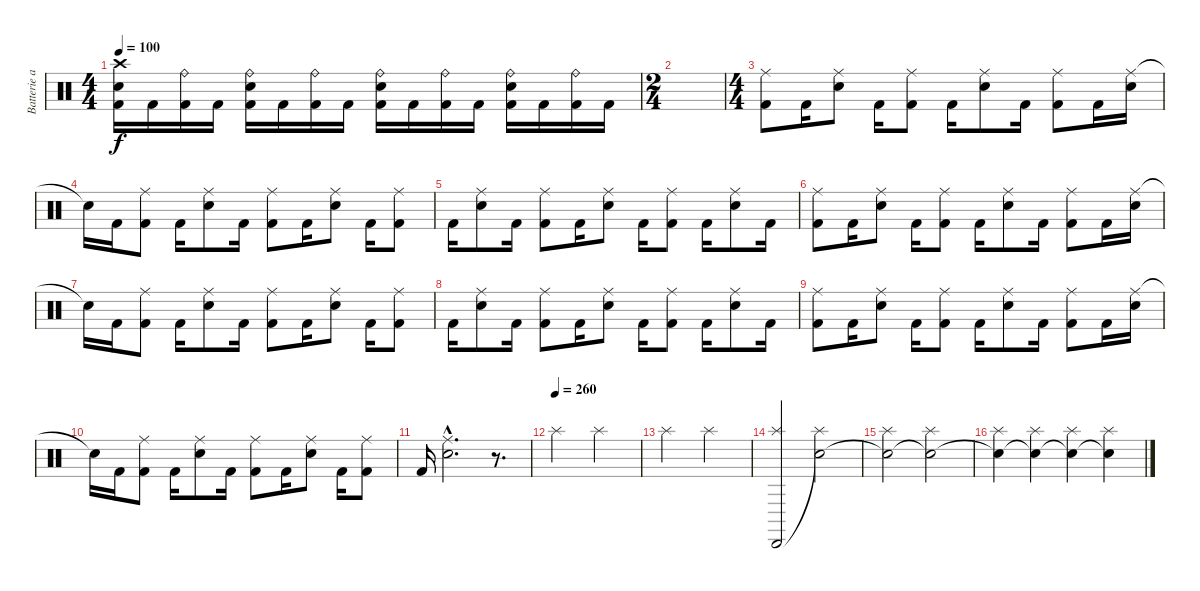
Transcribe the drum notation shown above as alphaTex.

\track ("Batterie and Effects" "Batterie a") {instrument percussion}
\staff {score}
\articulation defaults
\ts (4 4)
\tempo 100
\clef neutral
\ks c
("Crash high (hit)" "Electric Snare (hit)" "Kick (hit) 2").16{dy f} "Kick (hit) 2".16 ("Ride (bell)" "Kick (hit) 2").16 "Kick (hit) 2".16 ("Ride (bell)" "Electric Snare (hit)" "Kick (hit) 2").16 "Kick (hit) 2".16 ("Ride (bell)" "Kick (hit) 2").16 "Kick (hit) 2".16 ("Ride (bell)" "Electric Snare (hit)" "Kick (hit) 2").16 "Kick (hit) 2".16 ("Ride (bell)" "Kick (hit) 2").16 "Kick (hit) 2".16 ("Ride (bell)" "Electric Snare (hit)" "Kick (hit) 2").16 "Kick (hit) 2".16 ("Ride (bell)" "Kick (hit) 2").16 "Kick (hit) 2".16 |
\ts (2 4)
|
\ts (4 4)
("Ride (middle)" "Kick (hit) 2").8 "Kick (hit) 2".16 ("Ride (middle)" "Electric Snare (hit)").8 "Kick (hit) 2".16 ("Ride (middle)" "Kick (hit) 2").8 "Kick (hit) 2".16 ("Ride (middle)" "Electric Snare (hit)").8 "Kick (hit) 2".16 ("Ride (middle)" "Kick (hit) 2").8 "Kick (hit) 2".16 ("Ride (middle)" "Electric Snare (hit)").16 |
"Snare (hit)"{t}.16 "Kick (hit) 2".16 ("Ride (middle)" "Kick (hit) 2").8 "Kick (hit) 2".16 ("Ride (middle)" "Electric Snare (hit)").8 "Kick (hit) 2".16 ("Ride (middle)" "Kick (hit) 2").8 "Kick (hit) 2".16 ("Ride (middle)" "Electric Snare (hit)").8 "Kick (hit) 2".16 ("Ride (middle)" "Kick (hit) 2").8 |
"Kick (hit) 2".16 ("Ride (middle)" "Electric Snare (hit)").8 "Kick (hit) 2".16 ("Ride (middle)" "Kick (hit) 2").8 "Kick (hit) 2".16 ("Ride (middle)" "Electric Snare (hit)").8 "Kick (hit) 2".16 ("Ride (middle)" "Kick (hit) 2").8 "Kick (hit) 2".16 ("Ride (middle)" "Electric Snare (hit)").8 "Kick (hit) 2".16 |
("Ride (middle)" "Kick (hit) 2").8 "Kick (hit) 2".16 ("Ride (middle)" "Electric Snare (hit)").8 "Kick (hit) 2".16 ("Ride (middle)" "Kick (hit) 2").8 "Kick (hit) 2".16 ("Ride (middle)" "Electric Snare (hit)").8 "Kick (hit) 2".16 ("Ride (middle)" "Kick (hit) 2").8 "Kick (hit) 2".16 ("Ride (middle)" "Electric Snare (hit)").16 |
"Snare (hit)"{t}.16 "Kick (hit) 2".16 ("Ride (middle)" "Kick (hit) 2").8 "Kick (hit) 2".16 ("Ride (middle)" "Electric Snare (hit)").8 "Kick (hit) 2".16 ("Ride (middle)" "Kick (hit) 2").8 "Kick (hit) 2".16 ("Ride (middle)" "Electric Snare (hit)").8 "Kick (hit) 2".16 ("Ride (middle)" "Kick (hit) 2").8 |
"Kick (hit) 2".16 ("Ride (middle)" "Electric Snare (hit)").8 "Kick (hit) 2".16 ("Ride (middle)" "Kick (hit) 2").8 "Kick (hit) 2".16 ("Ride (middle)" "Electric Snare (hit)").8 "Kick (hit) 2".16 ("Ride (middle)" "Kick (hit) 2").8 "Kick (hit) 2".16 ("Ride (middle)" "Electric Snare (hit)").8 "Kick (hit) 2".16 |
("Ride (middle)" "Kick (hit) 2").8 "Kick (hit) 2".16 ("Ride (middle)" "Electric Snare (hit)").8 "Kick (hit) 2".16 ("Ride (middle)" "Kick (hit) 2").8 "Kick (hit) 2".16 ("Ride (middle)" "Electric Snare (hit)").8 "Kick (hit) 2".16 ("Ride (middle)" "Kick (hit) 2").8 "Kick (hit) 2".16 ("Ride (middle)" "Electric Snare (hit)").16 |
"Snare (hit)"{t}.16 "Kick (hit) 2".16 ("Ride (middle)" "Kick (hit) 2").8 "Kick (hit) 2".16 ("Ride (middle)" "Electric Snare (hit)").8 "Kick (hit) 2".16 ("Ride (middle)" "Kick (hit) 2").8 "Kick (hit) 2".16 ("Ride (middle)" "Electric Snare (hit)").8 "Kick (hit) 2".16 ("Ride (middle)" "Kick (hit) 2").8 |
"Kick (hit) 2".16 ("Ride (middle)"{hac} "Electric Snare (hit)"{hac}).2{d} r.8{d} |
\tempo (260)
"Splash (hit)".2 "Splash (hit)".2 |
"Splash (hit)".2 "Splash (hit)".2 |
("Splash (hit)" "Cabasa (hit)").2 ("Splash (hit)" "Snare (hit)"{t}).2 |
("Splash (hit)" "Snare (hit)"{t}).2 ("Splash (hit)" "Snare (hit)"{t}).2 |
("Splash (hit)" "Snare (hit)"{t}).4 ("Splash (hit)" "Snare (hit)"{t}).4 ("Splash (hit)" "Snare (hit)"{t}).4 ("Splash (hit)" "Snare (hit)"{t}).4
